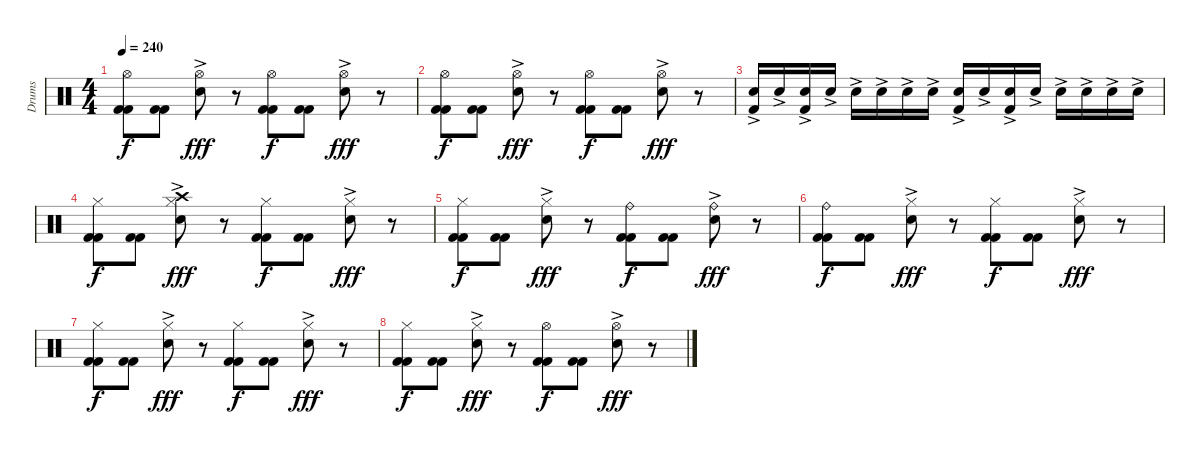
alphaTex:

\track ("Drums" "Drums") {instrument percussion}
\staff {score}
\articulation defaults
\ts (4 4)
\tempo 240
\clef neutral
\ks c
("Hi-Hat (open)" "Kick (hit) 2" "Kick (hit) 2").8{dy f} ("Kick (hit) 2" "Kick (hit) 2").8 ("Hi-Hat (open)" "Electric Snare (hit)"{ac}).8{dy fff} r.8 ("Hi-Hat (open)" "Kick (hit) 2" "Kick (hit) 2").8{dy f} ("Kick (hit) 2" "Kick (hit) 2").8 ("Hi-Hat (open)" "Electric Snare (hit)"{ac}).8{dy fff} r.8 |
("Hi-Hat (open)" "Kick (hit) 2" "Kick (hit) 2").8{dy f} ("Kick (hit) 2" "Kick (hit) 2").8 ("Hi-Hat (open)" "Electric Snare (hit)"{ac}).8{dy fff} r.8 ("Hi-Hat (open)" "Kick (hit) 2" "Kick (hit) 2").8{dy f} ("Kick (hit) 2" "Kick (hit) 2").8 ("Hi-Hat (open)" "Electric Snare (hit)"{ac}).8{dy fff} r.8 |
("Electric Snare (hit)"{ac} "Kick (hit) 2").16 "Electric Snare (hit)"{ac}.16 ("Electric Snare (hit)"{ac} "Kick (hit) 2").16 "Electric Snare (hit)"{ac}.16 "Electric Snare (hit)"{ac}.16 "Electric Snare (hit)"{ac}.16 "Electric Snare (hit)"{ac}.16 "Electric Snare (hit)"{ac}.16 ("Electric Snare (hit)"{ac} "Kick (hit) 2").16 "Electric Snare (hit)"{ac}.16 ("Electric Snare (hit)"{ac} "Kick (hit) 2").16 "Electric Snare (hit)"{ac}.16 "Electric Snare (hit)"{ac}.16 "Electric Snare (hit)"{ac}.16 "Electric Snare (hit)"{ac}.16 "Electric Snare (hit)"{ac}.16 |
("Hi-Hat (closed)" "Kick (hit) 2" "Kick (hit) 2").8{dy f} ("Kick (hit) 2" "Kick (hit) 2").8 ("Crash high (hit)" "Hi-Hat (closed)" "Electric Snare (hit)"{ac}).8{dy fff} r.8 ("Hi-Hat (closed)" "Kick (hit) 2" "Kick (hit) 2").8{dy f} ("Kick (hit) 2" "Kick (hit) 2").8 ("Hi-Hat (closed)" "Electric Snare (hit)"{ac}).8{dy fff} r.8 |
("Hi-Hat (closed)" "Kick (hit) 2" "Kick (hit) 2").8{dy f} ("Kick (hit) 2" "Kick (hit) 2").8 ("Hi-Hat (closed)" "Electric Snare (hit)"{ac}).8{dy fff} r.8 ("Ride (bell)" "Kick (hit) 2" "Kick (hit) 2").8{dy f} ("Kick (hit) 2" "Kick (hit) 2").8 ("Ride (bell)" "Electric Snare (hit)"{ac}).8{dy fff} r.8 |
("Ride (bell)" "Kick (hit) 2" "Kick (hit) 2").8{dy f} ("Kick (hit) 2" "Kick (hit) 2").8 ("Hi-Hat (closed)" "Electric Snare (hit)"{ac}).8{dy fff} r.8 ("Hi-Hat (closed)" "Kick (hit) 2" "Kick (hit) 2").8{dy f} ("Kick (hit) 2" "Kick (hit) 2").8 ("Hi-Hat (closed)" "Electric Snare (hit)"{ac}).8{dy fff} r.8 |
("Hi-Hat (closed)" "Kick (hit) 2" "Kick (hit) 2").8{dy f} ("Kick (hit) 2" "Kick (hit) 2").8 ("Hi-Hat (closed)" "Electric Snare (hit)"{ac}).8{dy fff} r.8 ("Hi-Hat (closed)" "Kick (hit) 2" "Kick (hit) 2").8{dy f} ("Kick (hit) 2" "Kick (hit) 2").8 ("Hi-Hat (closed)" "Electric Snare (hit)"{ac}).8{dy fff} r.8 |
("Hi-Hat (closed)" "Kick (hit) 2" "Kick (hit) 2").8{dy f} ("Kick (hit) 2" "Kick (hit) 2").8 ("Hi-Hat (closed)" "Electric Snare (hit)"{ac}).8{dy fff} r.8 ("Hi-Hat (open)" "Kick (hit) 2" "Kick (hit) 2").8{dy f} ("Kick (hit) 2" "Kick (hit) 2").8 ("Hi-Hat (open)" "Electric Snare (hit)"{ac}).8{dy fff} r.8
